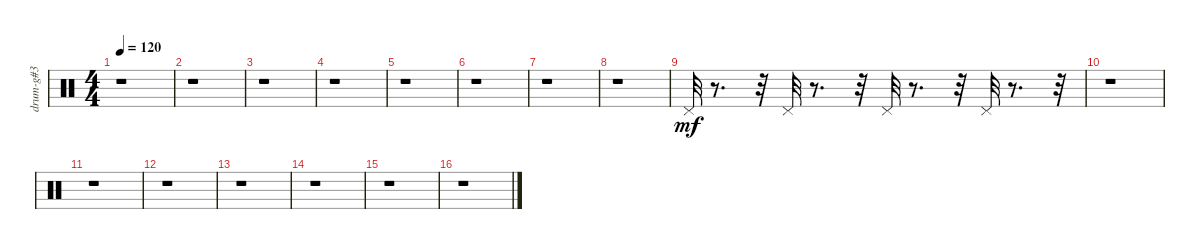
\track ("drum-g#3" "drum-g#3") {instrument percussion}
\staff {score}
\articulation defaults
\ts (4 4)
\tempo 120
\clef neutral
\ks c
r.1{dy mf} |
r.1 |
r.1 |
r.1 |
r.1 |
r.1 |
r.1 |
r.1 |
"Pedal Hi-Hat (hit)".32 r.8{d} r.32 "Pedal Hi-Hat (hit)".32 r.8{d} r.32 "Pedal Hi-Hat (hit)".32 r.8{d} r.32 "Pedal Hi-Hat (hit)".32 r.8{d} r.32 |
r.1 |
r.1 |
r.1 |
r.1 |
r.1 |
r.1 |
r.1
